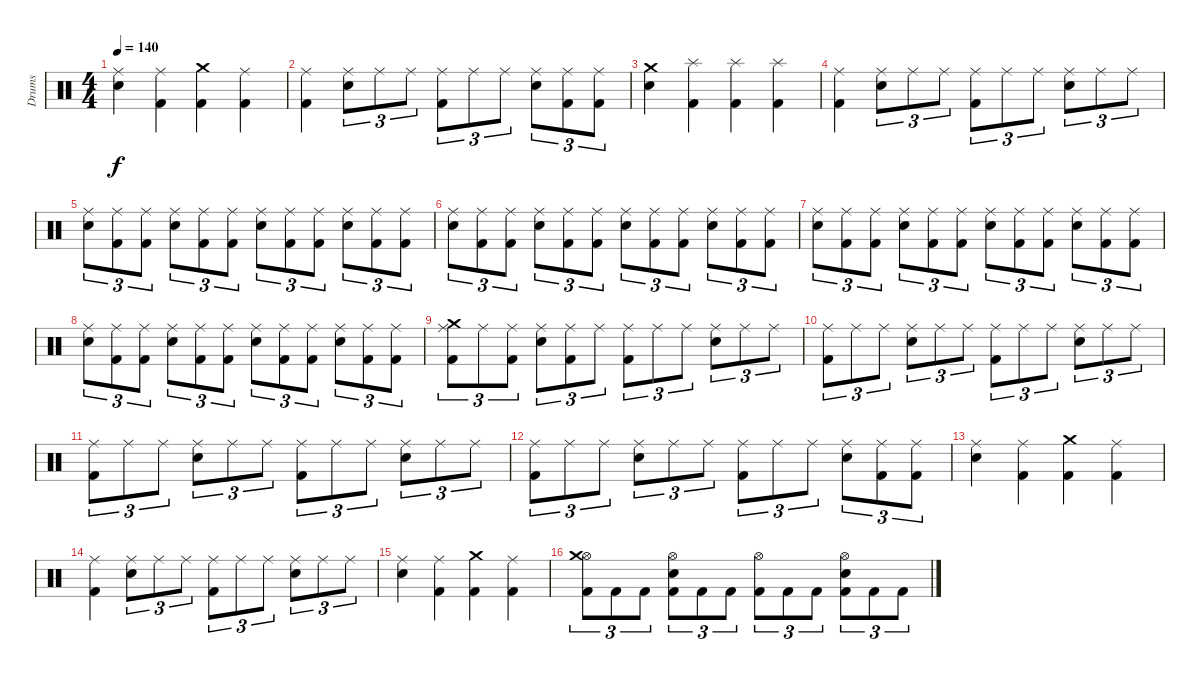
\track ("Drums" "Drums") {instrument percussion}
\staff {score}
\articulation defaults
\ts (4 4)
\tempo 140
\clef neutral
\ks c
("Electric Snare (hit)" "Ride (middle)").4{dy f} ("Kick (hit) 2" "Ride (middle)").4 ("Kick (hit) 2" "Crash medium (hit)").4 ("Kick (hit) 2" "Ride (middle)").4 |
("Kick (hit) 2" "Ride (middle)").4 ("Electric Snare (hit)" "Ride (middle)").8{tu (3 2)} "Ride (middle)".8{tu (3 2)} "Ride (middle)".8{tu (3 2)} ("Kick (hit) 2" "Ride (middle)").8{tu (3 2)} "Ride (middle)".8{tu (3 2)} "Ride (middle)".8{tu (3 2)} ("Electric Snare (hit)" "Ride (middle)").8{tu (3 2)} ("Kick (hit) 2" "Ride (middle)").8{tu (3 2)} ("Kick (hit) 2" "Ride (middle)").8{tu (3 2)} |
("Electric Snare (hit)" "Crash medium (hit)").4 ("Kick (hit) 2" "Splash (hit)").4 ("Kick (hit) 2" "Splash (hit)").4 ("Kick (hit) 2" "Splash (hit)").4 |
("Kick (hit) 2" "Ride (middle)").4 ("Electric Snare (hit)" "Ride (middle)").8{tu (3 2)} "Ride (middle)".8{tu (3 2)} "Ride (middle)".8{tu (3 2)} ("Kick (hit) 2" "Ride (middle)").8{tu (3 2)} "Ride (middle)".8{tu (3 2)} "Ride (middle)".8{tu (3 2)} ("Electric Snare (hit)" "Ride (middle)").8{tu (3 2)} "Ride (middle)".8{tu (3 2)} "Ride (middle)".8{tu (3 2)} |
("Electric Snare (hit)" "Ride (middle)").8{tu (3 2)} ("Kick (hit) 2" "Ride (middle)").8{tu (3 2)} ("Kick (hit) 2" "Ride (middle)").8{tu (3 2)} ("Electric Snare (hit)" "Ride (middle)").8{tu (3 2)} ("Kick (hit) 2" "Ride (middle)").8{tu (3 2)} ("Kick (hit) 2" "Ride (middle)").8{tu (3 2)} ("Electric Snare (hit)" "Ride (middle)").8{tu (3 2)} ("Kick (hit) 2" "Ride (middle)").8{tu (3 2)} ("Kick (hit) 2" "Ride (middle)").8{tu (3 2)} ("Electric Snare (hit)" "Ride (middle)").8{tu (3 2)} ("Kick (hit) 2" "Ride (middle)").8{tu (3 2)} ("Kick (hit) 2" "Ride (middle)").8{tu (3 2)} |
("Electric Snare (hit)" "Ride (middle)").8{tu (3 2)} ("Kick (hit) 2" "Ride (middle)").8{tu (3 2)} ("Kick (hit) 2" "Ride (middle)").8{tu (3 2)} ("Electric Snare (hit)" "Ride (middle)").8{tu (3 2)} ("Kick (hit) 2" "Ride (middle)").8{tu (3 2)} ("Kick (hit) 2" "Ride (middle)").8{tu (3 2)} ("Electric Snare (hit)" "Ride (middle)").8{tu (3 2)} ("Kick (hit) 2" "Ride (middle)").8{tu (3 2)} ("Kick (hit) 2" "Ride (middle)").8{tu (3 2)} ("Electric Snare (hit)" "Ride (middle)").8{tu (3 2)} ("Kick (hit) 2" "Ride (middle)").8{tu (3 2)} ("Kick (hit) 2" "Ride (middle)").8{tu (3 2)} |
("Electric Snare (hit)" "Ride (middle)").8{tu (3 2)} ("Kick (hit) 2" "Ride (middle)").8{tu (3 2)} ("Kick (hit) 2" "Ride (middle)").8{tu (3 2)} ("Electric Snare (hit)" "Ride (middle)").8{tu (3 2)} ("Kick (hit) 2" "Ride (middle)").8{tu (3 2)} ("Kick (hit) 2" "Ride (middle)").8{tu (3 2)} ("Electric Snare (hit)" "Ride (middle)").8{tu (3 2)} ("Kick (hit) 2" "Ride (middle)").8{tu (3 2)} ("Kick (hit) 2" "Ride (middle)").8{tu (3 2)} ("Electric Snare (hit)" "Ride (middle)").8{tu (3 2)} ("Kick (hit) 2" "Ride (middle)").8{tu (3 2)} ("Kick (hit) 2" "Ride (middle)").8{tu (3 2)} |
("Electric Snare (hit)" "Ride (middle)").8{tu (3 2)} ("Kick (hit) 2" "Ride (middle)").8{tu (3 2)} ("Kick (hit) 2" "Ride (middle)").8{tu (3 2)} ("Electric Snare (hit)" "Ride (middle)").8{tu (3 2)} ("Kick (hit) 2" "Ride (middle)").8{tu (3 2)} ("Kick (hit) 2" "Ride (middle)").8{tu (3 2)} ("Electric Snare (hit)" "Ride (middle)").8{tu (3 2)} ("Kick (hit) 2" "Ride (middle)").8{tu (3 2)} ("Kick (hit) 2" "Ride (middle)").8{tu (3 2)} ("Electric Snare (hit)" "Ride (middle)").8{tu (3 2)} ("Kick (hit) 2" "Ride (middle)").8{tu (3 2)} ("Kick (hit) 2" "Ride (middle)").8{tu (3 2)} |
("Kick (hit) 2" "Ride (middle)" "Crash medium (hit)").8{tu (3 2)} "Ride (middle)".8{tu (3 2)} ("Kick (hit) 2" "Ride (middle)").8{tu (3 2)} ("Electric Snare (hit)" "Ride (middle)").8{tu (3 2)} ("Kick (hit) 2" "Ride (middle)").8{tu (3 2)} "Ride (middle)".8{tu (3 2)} ("Kick (hit) 2" "Ride (middle)").8{tu (3 2)} "Ride (middle)".8{tu (3 2)} "Ride (middle)".8{tu (3 2)} ("Electric Snare (hit)" "Ride (middle)").8{tu (3 2)} "Ride (middle)".8{tu (3 2)} "Ride (middle)".8{tu (3 2)} |
("Kick (hit) 2" "Ride (middle)").8{tu (3 2)} "Ride (middle)".8{tu (3 2)} "Ride (middle)".8{tu (3 2)} ("Electric Snare (hit)" "Ride (middle)").8{tu (3 2)} "Ride (middle)".8{tu (3 2)} "Ride (middle)".8{tu (3 2)} ("Kick (hit) 2" "Ride (middle)").8{tu (3 2)} "Ride (middle)".8{tu (3 2)} "Ride (middle)".8{tu (3 2)} ("Electric Snare (hit)" "Ride (middle)").8{tu (3 2)} "Ride (middle)".8{tu (3 2)} "Ride (middle)".8{tu (3 2)} |
("Kick (hit) 2" "Ride (middle)").8{tu (3 2)} "Ride (middle)".8{tu (3 2)} "Ride (middle)".8{tu (3 2)} ("Electric Snare (hit)" "Ride (middle)").8{tu (3 2)} "Ride (middle)".8{tu (3 2)} "Ride (middle)".8{tu (3 2)} ("Kick (hit) 2" "Ride (middle)").8{tu (3 2)} "Ride (middle)".8{tu (3 2)} "Ride (middle)".8{tu (3 2)} ("Electric Snare (hit)" "Ride (middle)").8{tu (3 2)} "Ride (middle)".8{tu (3 2)} "Ride (middle)".8{tu (3 2)} |
("Kick (hit) 2" "Ride (middle)").8{tu (3 2)} "Ride (middle)".8{tu (3 2)} "Ride (middle)".8{tu (3 2)} ("Electric Snare (hit)" "Ride (middle)").8{tu (3 2)} "Ride (middle)".8{tu (3 2)} "Ride (middle)".8{tu (3 2)} ("Kick (hit) 2" "Ride (middle)").8{tu (3 2)} "Ride (middle)".8{tu (3 2)} "Ride (middle)".8{tu (3 2)} ("Electric Snare (hit)" "Ride (middle)").8{tu (3 2)} ("Kick (hit) 2" "Ride (middle)").8{tu (3 2)} ("Kick (hit) 2" "Ride (middle)").8{tu (3 2)} |
("Electric Snare (hit)" "Ride (middle)").4 ("Kick (hit) 2" "Ride (middle)").4 ("Kick (hit) 2" "Crash medium (hit)").4 ("Kick (hit) 2" "Ride (middle)").4 |
("Kick (hit) 2" "Ride (middle)").4 ("Electric Snare (hit)" "Ride (middle)").8{tu (3 2)} "Ride (middle)".8{tu (3 2)} "Ride (middle)".8{tu (3 2)} ("Kick (hit) 2" "Ride (middle)").8{tu (3 2)} "Ride (middle)".8{tu (3 2)} "Ride (middle)".8{tu (3 2)} ("Electric Snare (hit)" "Ride (middle)").8{tu (3 2)} "Ride (middle)".8{tu (3 2)} "Ride (middle)".8{tu (3 2)} |
("Electric Snare (hit)" "Ride (middle)").4 ("Kick (hit) 2" "Ride (middle)").4 ("Kick (hit) 2" "Crash medium (hit)").4 ("Kick (hit) 2" "Ride (middle)").4 |
("Kick (hit) 2" "Hi-Hat (open)" "Crash medium (hit)").8{tu (3 2)} "Kick (hit) 2".8{tu (3 2)} "Kick (hit) 2".8{tu (3 2)} ("Kick (hit) 2" "Electric Snare (hit)" "Hi-Hat (open)").8{tu (3 2)} "Kick (hit) 2".8{tu (3 2)} "Kick (hit) 2".8{tu (3 2)} ("Kick (hit) 2" "Hi-Hat (open)").8{tu (3 2)} "Kick (hit) 2".8{tu (3 2)} "Kick (hit) 2".8{tu (3 2)} ("Kick (hit) 2" "Electric Snare (hit)" "Hi-Hat (open)").8{tu (3 2)} "Kick (hit) 2".8{tu (3 2)} "Kick (hit) 2".8{tu (3 2)}
